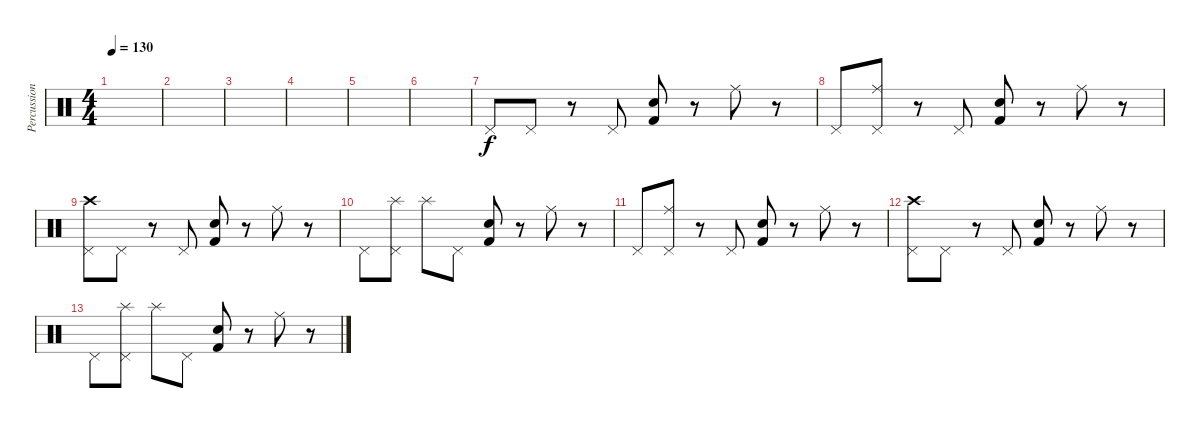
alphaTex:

\track ("Percussions" "Percussion") {instrument percussion}
\staff {score}
\articulation defaults
\ts (4 4)
\tempo 130
\clef neutral
\ks c
|
|
|
|
|
|
"Pedal Hi-Hat (hit)".8 "Pedal Hi-Hat (hit)".8 r.8 "Pedal Hi-Hat (hit)".8 ("Kick (hit) 2" "Electric Snare (hit)").8 r.8 "Ride (middle)".8 r.8 |
"Pedal Hi-Hat (hit)".8 ("Ride (middle)" "Pedal Hi-Hat (hit)").8 r.8 "Pedal Hi-Hat (hit)".8 ("Kick (hit) 2" "Electric Snare (hit)").8 r.8 "Ride (middle)".8 r.8 |
("Crash high (hit)" "Pedal Hi-Hat (hit)").8 "Pedal Hi-Hat (hit)".8 r.8 "Pedal Hi-Hat (hit)".8 ("Kick (hit) 2" "Electric Snare (hit)").8 r.8 "Ride (middle)".8 r.8 |
"Pedal Hi-Hat (hit)".8 ("Splash (hit)" "Pedal Hi-Hat (hit)").8 "Splash (hit)".8 "Pedal Hi-Hat (hit)".8 ("Kick (hit) 2" "Electric Snare (hit)").8 r.8 "Ride (middle)".8 r.8 |
"Pedal Hi-Hat (hit)".8 ("Ride (middle)" "Pedal Hi-Hat (hit)").8 r.8 "Pedal Hi-Hat (hit)".8 ("Kick (hit) 2" "Electric Snare (hit)").8 r.8 "Ride (middle)".8 r.8 |
("Crash high (hit)" "Pedal Hi-Hat (hit)").8 "Pedal Hi-Hat (hit)".8 r.8 "Pedal Hi-Hat (hit)".8 ("Kick (hit) 2" "Electric Snare (hit)").8 r.8 "Ride (middle)".8 r.8 |
"Pedal Hi-Hat (hit)".8 ("Splash (hit)" "Pedal Hi-Hat (hit)").8 "Splash (hit)".8 "Pedal Hi-Hat (hit)".8 ("Kick (hit) 2" "Electric Snare (hit)").8 r.8 "Ride (middle)".8 r.8
